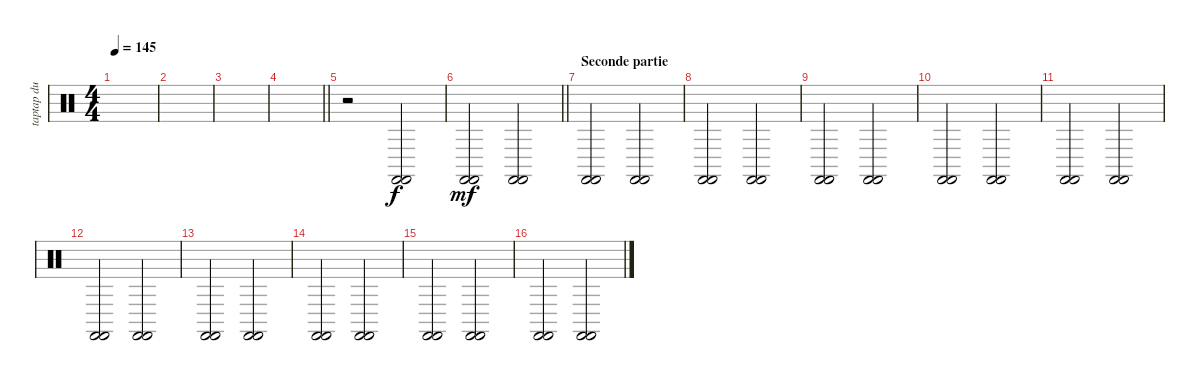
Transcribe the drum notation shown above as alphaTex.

\track ("taptap du pied" "taptap du ") {instrument percussion}
\staff {score}
\articulation defaults
\ts (4 4)
\tempo 145
\clef neutral
\ks c
|
|
|
\barLineRight lightlight
|
r.2 ("Castanets (hit)" "Castanets (hit)").2{dy f} |
\barLineRight lightlight
("Castanets (hit)" "Castanets (hit)").2{dy mf} ("Castanets (hit)" "Castanets (hit)").2 |
\section ("" "Seconde partie")
("Castanets (hit)" "Castanets (hit)").2 ("Castanets (hit)" "Castanets (hit)").2 |
("Castanets (hit)" "Castanets (hit)").2 ("Castanets (hit)" "Castanets (hit)").2 |
("Castanets (hit)" "Castanets (hit)").2 ("Castanets (hit)" "Castanets (hit)").2 |
("Castanets (hit)" "Castanets (hit)").2 ("Castanets (hit)" "Castanets (hit)").2 |
("Castanets (hit)" "Castanets (hit)").2 ("Castanets (hit)" "Castanets (hit)").2 |
("Castanets (hit)" "Castanets (hit)").2 ("Castanets (hit)" "Castanets (hit)").2 |
("Castanets (hit)" "Castanets (hit)").2 ("Castanets (hit)" "Castanets (hit)").2 |
("Castanets (hit)" "Castanets (hit)").2 ("Castanets (hit)" "Castanets (hit)").2 |
("Castanets (hit)" "Castanets (hit)").2 ("Castanets (hit)" "Castanets (hit)").2 |
("Castanets (hit)" "Castanets (hit)").2 ("Castanets (hit)" "Castanets (hit)").2
